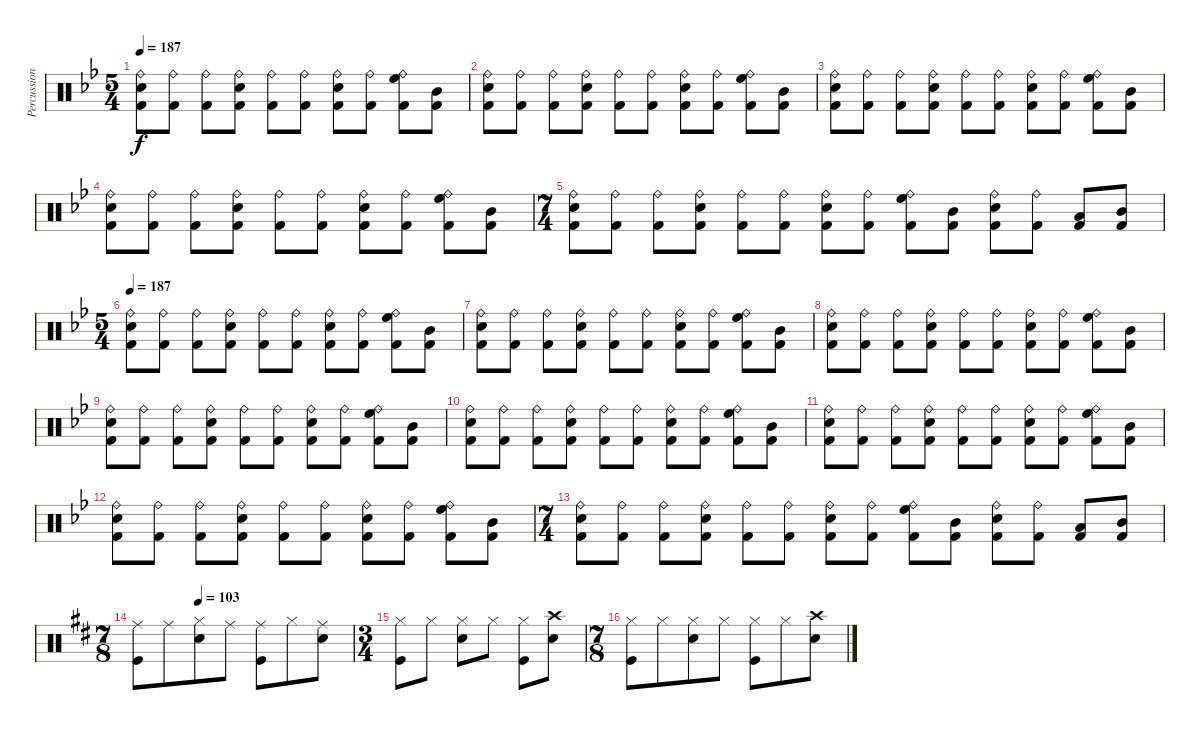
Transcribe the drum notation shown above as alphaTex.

\track ("Percussion" "Percussion") {instrument percussion}
\staff {score}
\articulation defaults
\ts (5 4)
\tempo 187
\clef neutral
\ks bb
("Ride (bell)" "Snare (hit) 2" "Kick (hit) 2").8{dy f} ("Ride (bell)" "Kick (hit) 2").8 ("Ride (bell)" "Kick (hit) 2").8 ("Ride (bell)" "Snare (hit) 2" "Kick (hit) 2").8 ("Ride (bell)" "Kick (hit) 2").8 ("Ride (bell)" "Kick (hit) 2").8 ("Ride (bell)" "Snare (hit) 2" "Kick (hit) 2").8 ("Ride (bell)" "Kick (hit) 2").8 ("Ride (bell)" "High Floor Tom (hit)" "Kick (hit) 2").8 ("Mid Tom (hit)" "Kick (hit) 2").8 |
("Ride (bell)" "Snare (hit) 2" "Kick (hit) 2").8 ("Ride (bell)" "Kick (hit) 2").8 ("Ride (bell)" "Kick (hit) 2").8 ("Ride (bell)" "Snare (hit) 2" "Kick (hit) 2").8 ("Ride (bell)" "Kick (hit) 2").8 ("Ride (bell)" "Kick (hit) 2").8 ("Ride (bell)" "Snare (hit) 2" "Kick (hit) 2").8 ("Ride (bell)" "Kick (hit) 2").8 ("Ride (bell)" "High Floor Tom (hit)" "Kick (hit) 2").8 ("Mid Tom (hit)" "Kick (hit) 2").8 |
("Ride (bell)" "Snare (hit) 2" "Kick (hit) 2").8 ("Ride (bell)" "Kick (hit) 2").8 ("Ride (bell)" "Kick (hit) 2").8 ("Ride (bell)" "Snare (hit) 2" "Kick (hit) 2").8 ("Ride (bell)" "Kick (hit) 2").8 ("Ride (bell)" "Kick (hit) 2").8 ("Ride (bell)" "Snare (hit) 2" "Kick (hit) 2").8 ("Ride (bell)" "Kick (hit) 2").8 ("Ride (bell)" "High Floor Tom (hit)" "Kick (hit) 2").8 ("Mid Tom (hit)" "Kick (hit) 2").8 |
("Ride (bell)" "Snare (hit) 2" "Kick (hit) 2").8 ("Ride (bell)" "Kick (hit) 2").8 ("Ride (bell)" "Kick (hit) 2").8 ("Ride (bell)" "Snare (hit) 2" "Kick (hit) 2").8 ("Ride (bell)" "Kick (hit) 2").8 ("Ride (bell)" "Kick (hit) 2").8 ("Ride (bell)" "Snare (hit) 2" "Kick (hit) 2").8 ("Ride (bell)" "Kick (hit) 2").8 ("Ride (bell)" "High Floor Tom (hit)" "Kick (hit) 2").8 ("Mid Tom (hit)" "Kick (hit) 2").8 |
\ts (7 4)
("Ride (bell)" "Snare (hit) 2" "Kick (hit) 2").8 ("Ride (bell)" "Kick (hit) 2").8 ("Ride (bell)" "Kick (hit) 2").8 ("Ride (bell)" "Snare (hit) 2" "Kick (hit) 2").8 ("Ride (bell)" "Kick (hit) 2").8 ("Ride (bell)" "Kick (hit) 2").8 ("Ride (bell)" "Snare (hit) 2" "Kick (hit) 2").8 ("Ride (bell)" "Kick (hit) 2").8 ("Ride (bell)" "High Floor Tom (hit)" "Kick (hit) 2").8 ("Mid Tom (hit)" "Kick (hit) 2").8 ("Ride (bell)" "Snare (hit) 2" "Kick (hit) 2").8 ("Ride (bell)" "Kick (hit) 2").8 ("Low Tom (hit)" "Kick (hit) 2").8 ("Mid Tom (hit)" "Kick (hit) 2").8 |
\ts (5 4)
\tempo 187
("Ride (bell)" "Snare (hit) 2" "Kick (hit) 2").8 ("Ride (bell)" "Kick (hit) 2").8 ("Ride (bell)" "Kick (hit) 2").8 ("Ride (bell)" "Snare (hit) 2" "Kick (hit) 2").8 ("Ride (bell)" "Kick (hit) 2").8 ("Ride (bell)" "Kick (hit) 2").8 ("Ride (bell)" "Snare (hit) 2" "Kick (hit) 2").8 ("Ride (bell)" "Kick (hit) 2").8 ("Ride (bell)" "High Floor Tom (hit)" "Kick (hit) 2").8 ("Mid Tom (hit)" "Kick (hit) 2").8 |
("Ride (bell)" "Snare (hit) 2" "Kick (hit) 2").8 ("Ride (bell)" "Kick (hit) 2").8 ("Ride (bell)" "Kick (hit) 2").8 ("Ride (bell)" "Snare (hit) 2" "Kick (hit) 2").8 ("Ride (bell)" "Kick (hit) 2").8 ("Ride (bell)" "Kick (hit) 2").8 ("Ride (bell)" "Snare (hit) 2" "Kick (hit) 2").8 ("Ride (bell)" "Kick (hit) 2").8 ("Ride (bell)" "High Floor Tom (hit)" "Kick (hit) 2").8 ("Mid Tom (hit)" "Kick (hit) 2").8 |
("Ride (bell)" "Snare (hit) 2" "Kick (hit) 2").8 ("Ride (bell)" "Kick (hit) 2").8 ("Ride (bell)" "Kick (hit) 2").8 ("Ride (bell)" "Snare (hit) 2" "Kick (hit) 2").8 ("Ride (bell)" "Kick (hit) 2").8 ("Ride (bell)" "Kick (hit) 2").8 ("Ride (bell)" "Snare (hit) 2" "Kick (hit) 2").8 ("Ride (bell)" "Kick (hit) 2").8 ("Ride (bell)" "High Floor Tom (hit)" "Kick (hit) 2").8 ("Mid Tom (hit)" "Kick (hit) 2").8 |
("Ride (bell)" "Snare (hit) 2" "Kick (hit) 2").8 ("Ride (bell)" "Kick (hit) 2").8 ("Ride (bell)" "Kick (hit) 2").8 ("Ride (bell)" "Snare (hit) 2" "Kick (hit) 2").8 ("Ride (bell)" "Kick (hit) 2").8 ("Ride (bell)" "Kick (hit) 2").8 ("Ride (bell)" "Snare (hit) 2" "Kick (hit) 2").8 ("Ride (bell)" "Kick (hit) 2").8 ("Ride (bell)" "High Floor Tom (hit)" "Kick (hit) 2").8 ("Mid Tom (hit)" "Kick (hit) 2").8 |
("Ride (bell)" "Snare (hit) 2" "Kick (hit) 2").8 ("Ride (bell)" "Kick (hit) 2").8 ("Ride (bell)" "Kick (hit) 2").8 ("Ride (bell)" "Snare (hit) 2" "Kick (hit) 2").8 ("Ride (bell)" "Kick (hit) 2").8 ("Ride (bell)" "Kick (hit) 2").8 ("Ride (bell)" "Snare (hit) 2" "Kick (hit) 2").8 ("Ride (bell)" "Kick (hit) 2").8 ("Ride (bell)" "High Floor Tom (hit)" "Kick (hit) 2").8 ("Mid Tom (hit)" "Kick (hit) 2").8 |
("Ride (bell)" "Snare (hit) 2" "Kick (hit) 2").8 ("Ride (bell)" "Kick (hit) 2").8 ("Ride (bell)" "Kick (hit) 2").8 ("Ride (bell)" "Snare (hit) 2" "Kick (hit) 2").8 ("Ride (bell)" "Kick (hit) 2").8 ("Ride (bell)" "Kick (hit) 2").8 ("Ride (bell)" "Snare (hit) 2" "Kick (hit) 2").8 ("Ride (bell)" "Kick (hit) 2").8 ("Ride (bell)" "High Floor Tom (hit)" "Kick (hit) 2").8 ("Mid Tom (hit)" "Kick (hit) 2").8 |
("Ride (bell)" "Snare (hit) 2" "Kick (hit) 2").8 ("Ride (bell)" "Kick (hit) 2").8 ("Ride (bell)" "Kick (hit) 2").8 ("Ride (bell)" "Snare (hit) 2" "Kick (hit) 2").8 ("Ride (bell)" "Kick (hit) 2").8 ("Ride (bell)" "Kick (hit) 2").8 ("Ride (bell)" "Snare (hit) 2" "Kick (hit) 2").8 ("Ride (bell)" "Kick (hit) 2").8 ("Ride (bell)" "High Floor Tom (hit)" "Kick (hit) 2").8 ("Mid Tom (hit)" "Kick (hit) 2").8 |
\ts (7 4)
("Ride (bell)" "Snare (hit) 2" "Kick (hit) 2").8 ("Ride (bell)" "Kick (hit) 2").8 ("Ride (bell)" "Kick (hit) 2").8 ("Ride (bell)" "Snare (hit) 2" "Kick (hit) 2").8 ("Ride (bell)" "Kick (hit) 2").8 ("Ride (bell)" "Kick (hit) 2").8 ("Ride (bell)" "Snare (hit) 2" "Kick (hit) 2").8 ("Ride (bell)" "Kick (hit) 2").8 ("Ride (bell)" "High Floor Tom (hit)" "Kick (hit) 2").8 ("Mid Tom (hit)" "Kick (hit) 2").8 ("Ride (bell)" "Snare (hit) 2" "Kick (hit) 2").8 ("Ride (bell)" "Kick (hit) 2").8 ("Low Tom (hit)" "Kick (hit) 2").8 ("Mid Tom (hit)" "Kick (hit) 2").8 |
\ts (7 8)
\tempo (103 0.2857142857142857)
\ks d
("Ride (middle)" "Kick (hit)").8 "Ride (middle)".8 ("Hi-Hat (closed)" "Snare (hit) 2").8 "Ride (middle)".8 ("Ride (middle)" "Kick (hit)").8 "Hi-Hat (closed)".8 ("Ride (middle)" "Snare (hit) 2").8 |
\ts (3 4)
("Hi-Hat (closed)" "Kick (hit)").8 "Hi-Hat (closed)".8 ("Hi-Hat (closed)" "Snare (hit) 2").8 "Hi-Hat (closed)".8 ("Hi-Hat (closed)" "Kick (hit)").8 ("Crash high (hit)" "Snare (hit) 2").8 |
\ts (7 8)
("Hi-Hat (closed)" "Kick (hit)").8 "Hi-Hat (closed)".8 ("Hi-Hat (closed)" "Snare (hit) 2").8 "Hi-Hat (closed)".8 ("Hi-Hat (closed)" "Kick (hit)").8 "Hi-Hat (closed)".8 ("Crash high (hit)" "Snare (hit) 2").8
